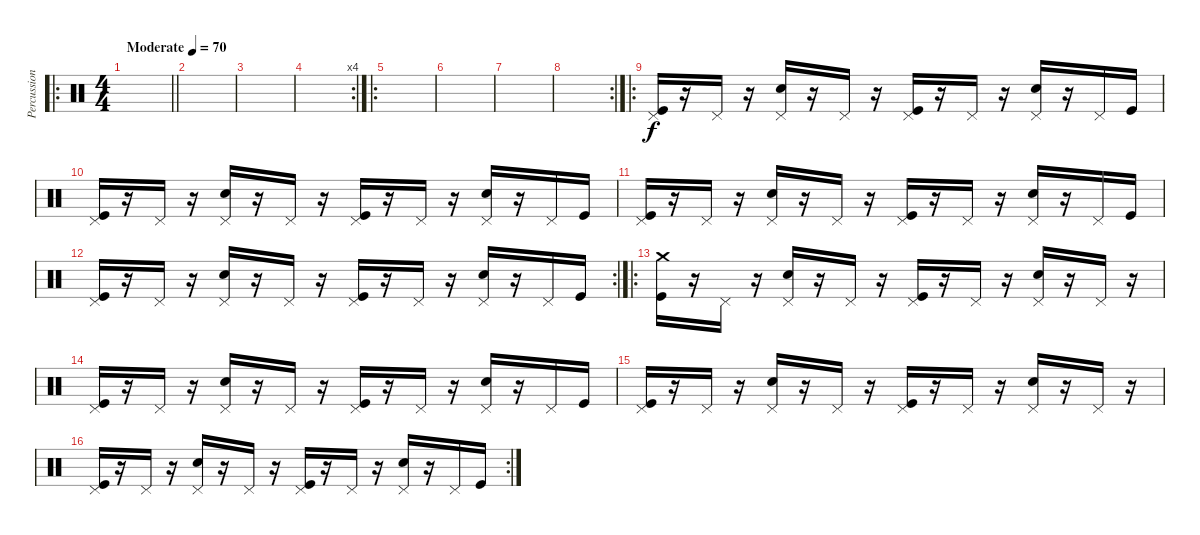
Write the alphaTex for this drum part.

\track ("Percussion" "Percussion") {instrument percussion}
\staff {score}
\articulation defaults
\ro
\ts (4 4)
\section ("" "")
\tempo (70 "Moderate")
\clef neutral
\barLineRight lightlight
\ks c
|
\section ("" "")
|
|
\rc 4
|
\ro
|
|
|
\rc 2
|
\ro
("Pedal Hi-Hat (hit)" "Kick (hit)").16 r.16 "Pedal Hi-Hat (hit)".16 r.16 ("Pedal Hi-Hat (hit)" "Electric Snare (hit)").16 r.16 "Pedal Hi-Hat (hit)".16 r.16 ("Pedal Hi-Hat (hit)" "Kick (hit)").16 r.16 "Pedal Hi-Hat (hit)".16 r.16 ("Pedal Hi-Hat (hit)" "Electric Snare (hit)").16 r.16 "Pedal Hi-Hat (hit)".16 "Kick (hit)".16 |
("Pedal Hi-Hat (hit)" "Kick (hit)").16 r.16 "Pedal Hi-Hat (hit)".16 r.16 ("Pedal Hi-Hat (hit)" "Electric Snare (hit)").16 r.16 "Pedal Hi-Hat (hit)".16 r.16 ("Pedal Hi-Hat (hit)" "Kick (hit)").16 r.16 "Pedal Hi-Hat (hit)".16 r.16 ("Pedal Hi-Hat (hit)" "Electric Snare (hit)").16 r.16 "Pedal Hi-Hat (hit)".16 "Kick (hit)".16 |
("Pedal Hi-Hat (hit)" "Kick (hit)").16 r.16 "Pedal Hi-Hat (hit)".16 r.16 ("Pedal Hi-Hat (hit)" "Electric Snare (hit)").16 r.16 "Pedal Hi-Hat (hit)".16 r.16 ("Pedal Hi-Hat (hit)" "Kick (hit)").16 r.16 "Pedal Hi-Hat (hit)".16 r.16 ("Pedal Hi-Hat (hit)" "Electric Snare (hit)").16 r.16 "Pedal Hi-Hat (hit)".16 "Kick (hit)".16 |
\rc 2
("Pedal Hi-Hat (hit)" "Kick (hit)").16 r.16 "Pedal Hi-Hat (hit)".16 r.16 ("Pedal Hi-Hat (hit)" "Electric Snare (hit)").16 r.16 "Pedal Hi-Hat (hit)".16 r.16 ("Pedal Hi-Hat (hit)" "Kick (hit)").16 r.16 "Pedal Hi-Hat (hit)".16 r.16 ("Pedal Hi-Hat (hit)" "Electric Snare (hit)").16 r.16 "Pedal Hi-Hat (hit)".16 "Kick (hit)".16 |
\ro
("Crash medium (hit)" "Kick (hit)").16 r.16 "Pedal Hi-Hat (hit)".16 r.16 ("Pedal Hi-Hat (hit)" "Electric Snare (hit)").16 r.16 "Pedal Hi-Hat (hit)".16 r.16 ("Pedal Hi-Hat (hit)" "Kick (hit)").16 r.16 "Pedal Hi-Hat (hit)".16 r.16 ("Pedal Hi-Hat (hit)" "Electric Snare (hit)").16 r.16 "Pedal Hi-Hat (hit)".16 r.16 |
("Pedal Hi-Hat (hit)" "Kick (hit)").16 r.16 "Pedal Hi-Hat (hit)".16 r.16 ("Pedal Hi-Hat (hit)" "Electric Snare (hit)").16 r.16 "Pedal Hi-Hat (hit)".16 r.16 ("Pedal Hi-Hat (hit)" "Kick (hit)").16 r.16 "Pedal Hi-Hat (hit)".16 r.16 ("Pedal Hi-Hat (hit)" "Electric Snare (hit)").16 r.16 "Pedal Hi-Hat (hit)".16 "Kick (hit)".16 |
("Pedal Hi-Hat (hit)" "Kick (hit)").16 r.16 "Pedal Hi-Hat (hit)".16 r.16 ("Pedal Hi-Hat (hit)" "Electric Snare (hit)").16 r.16 "Pedal Hi-Hat (hit)".16 r.16 ("Pedal Hi-Hat (hit)" "Kick (hit)").16 r.16 "Pedal Hi-Hat (hit)".16 r.16 ("Pedal Hi-Hat (hit)" "Electric Snare (hit)").16 r.16 "Pedal Hi-Hat (hit)".16 r.16 |
\rc 2
("Pedal Hi-Hat (hit)" "Kick (hit)").16 r.16 "Pedal Hi-Hat (hit)".16 r.16 ("Pedal Hi-Hat (hit)" "Electric Snare (hit)").16 r.16 "Pedal Hi-Hat (hit)".16 r.16 ("Pedal Hi-Hat (hit)" "Kick (hit)").16 r.16 "Pedal Hi-Hat (hit)".16 r.16 ("Pedal Hi-Hat (hit)" "Electric Snare (hit)").16 r.16 "Pedal Hi-Hat (hit)".16 "Kick (hit)".16
